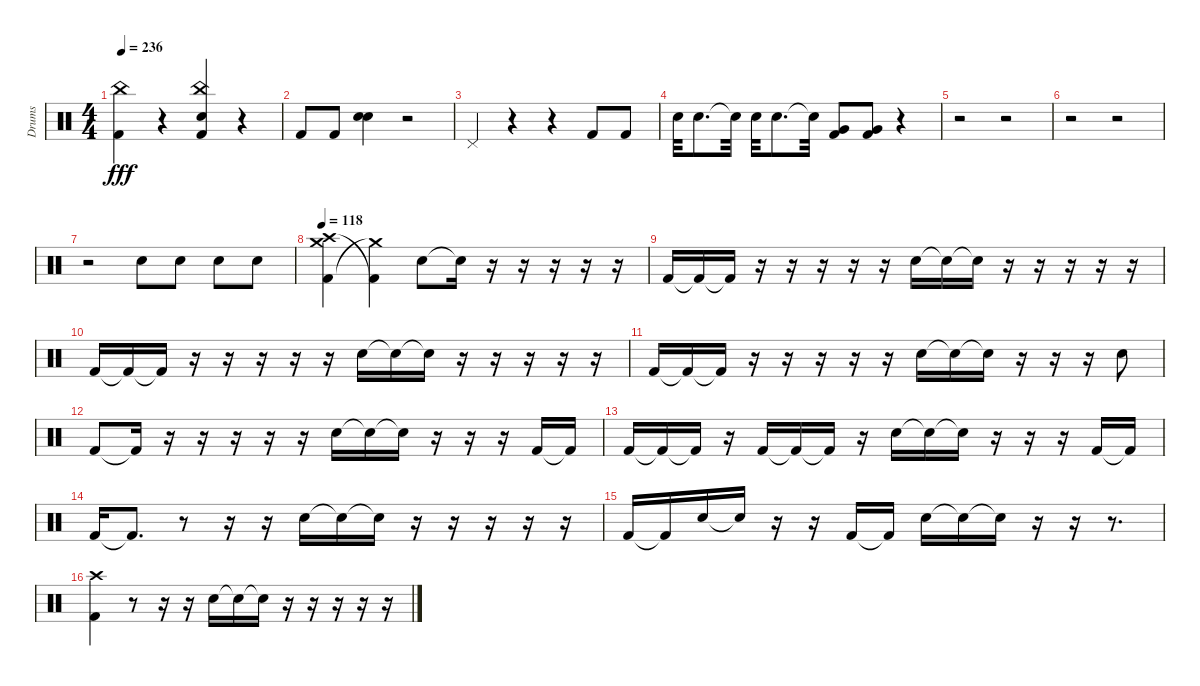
\track ("Drums" "Drums") {instrument percussion}
\staff {score}
\articulation defaults
\ts (4 4)
\tempo 236
\clef neutral
\ks c
("Kick (hit) 2" "China (hit)").4{dy fff} r.4 ("Snare (hit) 2" "Kick (hit) 2" "China (hit)").4 r.4 |
"Kick (hit) 2".8 "Kick (hit) 2".8 ("Snare (hit) 2" "Hand Clap (hit)").4 r.2 |
"Pedal Hi-Hat (hit)".4 r.4 r.4 "Kick (hit) 2".8 "Kick (hit) 2".8 |
"Snare (hit) 2".32 "Snare (hit) 2".8{d} "Snare (hit) 2"{t}.32 "Snare (hit) 2".32 "Snare (hit) 2".8{d} "Snare (hit) 2"{t}.32 ("Kick (hit) 2" "Very Low Tom (hit)").8 ("Kick (hit) 2" "Very Low Tom (hit)").8 r.4 |
r.2 r.2 |
r.2 r.2 |
r.2 "Snare (hit) 2".8 "Snare (hit) 2".8 "Snare (hit) 2".8 "Snare (hit) 2".8 |
\tempo 118
("Crash high (hit)" "Kick (hit) 2" "Crash medium (hit)").4 ("Kick (hit) 2"{t} "Crash medium (hit)"{t}).4 "Snare (hit) 2".8 "Snare (hit) 2"{t}.16 r.16 r.16 r.16 r.16 r.16 |
"Kick (hit) 2".16 "Kick (hit) 2"{t}.16 "Kick (hit) 2"{t}.16 r.16 r.16 r.16 r.16 r.16 "Snare (hit) 2".16 "Snare (hit) 2"{t}.16 "Snare (hit) 2"{t}.16 r.16 r.16 r.16 r.16 r.16 |
"Kick (hit) 2".16 "Kick (hit) 2"{t}.16 "Kick (hit) 2"{t}.16 r.16 r.16 r.16 r.16 r.16 "Snare (hit) 2".16 "Snare (hit) 2"{t}.16 "Snare (hit) 2"{t}.16 r.16 r.16 r.16 r.16 r.16 |
"Kick (hit) 2".16 "Kick (hit) 2"{t}.16 "Kick (hit) 2"{t}.16 r.16 r.16 r.16 r.16 r.16 "Snare (hit) 2".16 "Snare (hit) 2"{t}.16 "Snare (hit) 2"{t}.16 r.16 r.16 r.16 "Snare (hit) 2".8 |
"Kick (hit) 2".8 "Kick (hit) 2"{t}.16 r.16 r.16 r.16 r.16 r.16 "Snare (hit) 2".16 "Snare (hit) 2"{t}.16 "Snare (hit) 2"{t}.16 r.16 r.16 r.16 "Kick (hit) 2".16 "Kick (hit) 2"{t}.16 |
"Kick (hit) 2".16 "Kick (hit) 2"{t}.16 "Kick (hit) 2"{t}.16 r.16 "Kick (hit) 2".16 "Kick (hit) 2"{t}.16 "Kick (hit) 2"{t}.16 r.16 "Snare (hit) 2".16 "Snare (hit) 2"{t}.16 "Snare (hit) 2"{t}.16 r.16 r.16 r.16 "Kick (hit) 2".16 "Kick (hit) 2"{t}.16 |
"Kick (hit) 2".16 "Kick (hit) 2"{t}.8{d} r.8 r.16 r.16 "Snare (hit) 2".16 "Snare (hit) 2"{t}.16 "Snare (hit) 2"{t}.16 r.16 r.16 r.16 r.16 r.16 |
"Kick (hit) 2".16 "Kick (hit) 2"{t}.16 "Snare (hit) 2".16 "Snare (hit) 2"{t}.16 r.16 r.16 "Kick (hit) 2".16 "Kick (hit) 2"{t}.16 "Snare (hit) 2".16 "Snare (hit) 2"{t}.16 "Snare (hit) 2"{t}.16 r.16 r.16 r.8{d} |
("Kick (hit) 2" "Crash high (hit)").4 r.8 r.16 r.16 "Snare (hit) 2".16 "Snare (hit) 2"{t}.16 "Snare (hit) 2"{t}.16 r.16 r.16 r.16 r.16 r.16
